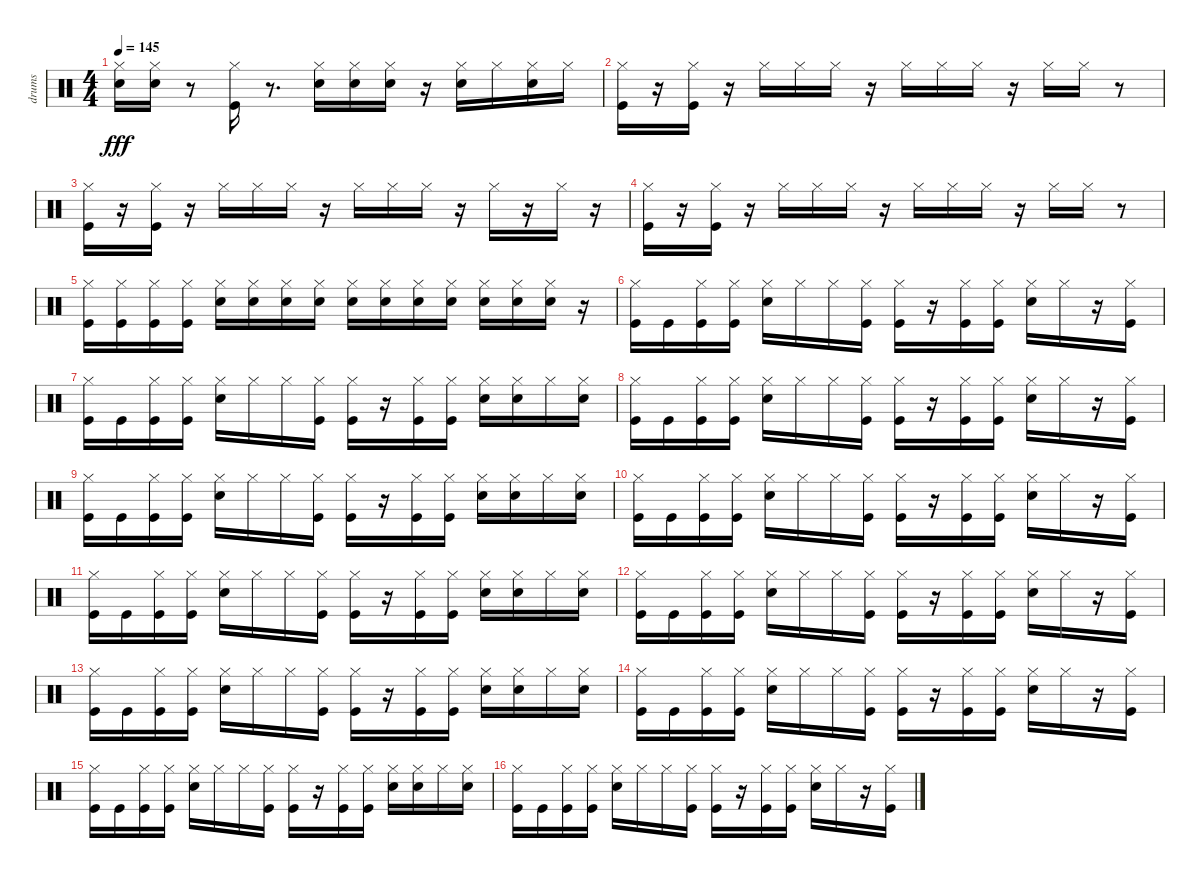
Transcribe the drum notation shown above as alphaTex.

\track ("drums" "drums") {instrument percussion}
\staff {score}
\articulation defaults
\ts (4 4)
\tempo 145
\clef neutral
\ks c
("Snare (hit) 2" "Hi-Hat (closed)").16{dy fff} ("Snare (hit) 2" "Hi-Hat (closed)").16 r.8 ("Kick (hit)" "Hi-Hat (closed)").16 r.8{d} ("Snare (hit) 2" "Hi-Hat (closed)").16 ("Snare (hit) 2" "Hi-Hat (closed)").16 ("Snare (hit) 2" "Hi-Hat (closed)").16 r.16 ("Snare (hit) 2" "Hi-Hat (closed)").16 "Hi-Hat (closed)".16 ("Snare (hit) 2" "Hi-Hat (closed)").16 "Hi-Hat (closed)".16 |
("Kick (hit)" "Hi-Hat (closed)").16 r.16 ("Kick (hit)" "Hi-Hat (closed)").16 r.16 "Hi-Hat (closed)".16 "Hi-Hat (closed)".16 "Hi-Hat (closed)".16 r.16 "Hi-Hat (closed)".16 "Hi-Hat (closed)".16 "Hi-Hat (closed)".16 r.16 "Hi-Hat (closed)".16 "Hi-Hat (closed)".16 r.8 |
("Kick (hit)" "Hi-Hat (closed)").16 r.16 ("Kick (hit)" "Hi-Hat (closed)").16 r.16 "Hi-Hat (closed)".16 "Hi-Hat (closed)".16 "Hi-Hat (closed)".16 r.16 "Hi-Hat (closed)".16 "Hi-Hat (closed)".16 "Hi-Hat (closed)".16 r.16 "Hi-Hat (closed)".16 r.16 "Hi-Hat (closed)".16 r.16 |
("Kick (hit)" "Hi-Hat (closed)").16 r.16 ("Kick (hit)" "Hi-Hat (closed)").16 r.16 "Hi-Hat (closed)".16 "Hi-Hat (closed)".16 "Hi-Hat (closed)".16 r.16 "Hi-Hat (closed)".16 "Hi-Hat (closed)".16 "Hi-Hat (closed)".16 r.16 "Hi-Hat (closed)".16 "Hi-Hat (closed)".16 r.8 |
("Kick (hit)" "Hi-Hat (closed)").16 ("Kick (hit)" "Hi-Hat (closed)").16 ("Kick (hit)" "Hi-Hat (closed)").16 ("Kick (hit)" "Hi-Hat (closed)").16 ("Snare (hit) 2" "Hi-Hat (closed)").16 ("Snare (hit) 2" "Hi-Hat (closed)").16 ("Snare (hit) 2" "Hi-Hat (closed)").16 ("Snare (hit) 2" "Hi-Hat (closed)").16 ("Snare (hit) 2" "Hi-Hat (closed)").16 ("Snare (hit) 2" "Hi-Hat (closed)").16 ("Snare (hit) 2" "Hi-Hat (closed)").16 ("Snare (hit) 2" "Hi-Hat (closed)").16 ("Snare (hit) 2" "Hi-Hat (closed)").16 ("Snare (hit) 2" "Hi-Hat (closed)").16 ("Snare (hit) 2" "Hi-Hat (closed)").16 r.16 |
("Kick (hit)" "Hi-Hat (closed)").16 "Kick (hit)".16 ("Kick (hit)" "Hi-Hat (closed)").16 ("Kick (hit)" "Hi-Hat (closed)").16 ("Snare (hit) 2" "Hi-Hat (closed)").16 "Hi-Hat (closed)".16 "Hi-Hat (closed)".16 ("Kick (hit)" "Hi-Hat (closed)").16 ("Kick (hit)" "Hi-Hat (closed)").16 r.16 ("Kick (hit)" "Hi-Hat (closed)").16 ("Kick (hit)" "Hi-Hat (closed)").16 ("Snare (hit) 2" "Hi-Hat (closed)").16 "Hi-Hat (closed)".16 r.16 ("Kick (hit)" "Hi-Hat (closed)").16 |
("Kick (hit)" "Hi-Hat (closed)").16 "Kick (hit)".16 ("Kick (hit)" "Hi-Hat (closed)").16 ("Kick (hit)" "Hi-Hat (closed)").16 ("Snare (hit) 2" "Hi-Hat (closed)").16 "Hi-Hat (closed)".16 "Hi-Hat (closed)".16 ("Kick (hit)" "Hi-Hat (closed)").16 ("Kick (hit)" "Hi-Hat (closed)").16 r.16 ("Kick (hit)" "Hi-Hat (closed)").16 ("Kick (hit)" "Hi-Hat (closed)").16 ("Snare (hit) 2" "Hi-Hat (closed)").16 ("Snare (hit) 2" "Hi-Hat (closed)").16 "Hi-Hat (closed)".16 ("Snare (hit) 2" "Hi-Hat (closed)").16 |
("Kick (hit)" "Hi-Hat (closed)").16 "Kick (hit)".16 ("Kick (hit)" "Hi-Hat (closed)").16 ("Kick (hit)" "Hi-Hat (closed)").16 ("Snare (hit) 2" "Hi-Hat (closed)").16 "Hi-Hat (closed)".16 "Hi-Hat (closed)".16 ("Kick (hit)" "Hi-Hat (closed)").16 ("Kick (hit)" "Hi-Hat (closed)").16 r.16 ("Kick (hit)" "Hi-Hat (closed)").16 ("Kick (hit)" "Hi-Hat (closed)").16 ("Snare (hit) 2" "Hi-Hat (closed)").16 "Hi-Hat (closed)".16 r.16 ("Kick (hit)" "Hi-Hat (closed)").16 |
("Kick (hit)" "Hi-Hat (closed)").16 "Kick (hit)".16 ("Kick (hit)" "Hi-Hat (closed)").16 ("Kick (hit)" "Hi-Hat (closed)").16 ("Snare (hit) 2" "Hi-Hat (closed)").16 "Hi-Hat (closed)".16 "Hi-Hat (closed)".16 ("Kick (hit)" "Hi-Hat (closed)").16 ("Kick (hit)" "Hi-Hat (closed)").16 r.16 ("Kick (hit)" "Hi-Hat (closed)").16 ("Kick (hit)" "Hi-Hat (closed)").16 ("Snare (hit) 2" "Hi-Hat (closed)").16 ("Snare (hit) 2" "Hi-Hat (closed)").16 "Hi-Hat (closed)".16 ("Snare (hit) 2" "Hi-Hat (closed)").16 |
("Kick (hit)" "Hi-Hat (closed)").16 "Kick (hit)".16 ("Kick (hit)" "Hi-Hat (closed)").16 ("Kick (hit)" "Hi-Hat (closed)").16 ("Snare (hit) 2" "Hi-Hat (closed)").16 "Hi-Hat (closed)".16 "Hi-Hat (closed)".16 ("Kick (hit)" "Hi-Hat (closed)").16 ("Kick (hit)" "Hi-Hat (closed)").16 r.16 ("Kick (hit)" "Hi-Hat (closed)").16 ("Kick (hit)" "Hi-Hat (closed)").16 ("Snare (hit) 2" "Hi-Hat (closed)").16 "Hi-Hat (closed)".16 r.16 ("Kick (hit)" "Hi-Hat (closed)").16 |
("Kick (hit)" "Hi-Hat (closed)").16 "Kick (hit)".16 ("Kick (hit)" "Hi-Hat (closed)").16 ("Kick (hit)" "Hi-Hat (closed)").16 ("Snare (hit) 2" "Hi-Hat (closed)").16 "Hi-Hat (closed)".16 "Hi-Hat (closed)".16 ("Kick (hit)" "Hi-Hat (closed)").16 ("Kick (hit)" "Hi-Hat (closed)").16 r.16 ("Kick (hit)" "Hi-Hat (closed)").16 ("Kick (hit)" "Hi-Hat (closed)").16 ("Snare (hit) 2" "Hi-Hat (closed)").16 ("Snare (hit) 2" "Hi-Hat (closed)").16 "Hi-Hat (closed)".16 ("Snare (hit) 2" "Hi-Hat (closed)").16 |
("Kick (hit)" "Hi-Hat (closed)").16 "Kick (hit)".16 ("Kick (hit)" "Hi-Hat (closed)").16 ("Kick (hit)" "Hi-Hat (closed)").16 ("Snare (hit) 2" "Hi-Hat (closed)").16 "Hi-Hat (closed)".16 "Hi-Hat (closed)".16 ("Kick (hit)" "Hi-Hat (closed)").16 ("Kick (hit)" "Hi-Hat (closed)").16 r.16 ("Kick (hit)" "Hi-Hat (closed)").16 ("Kick (hit)" "Hi-Hat (closed)").16 ("Snare (hit) 2" "Hi-Hat (closed)").16 "Hi-Hat (closed)".16 r.16 ("Kick (hit)" "Hi-Hat (closed)").16 |
("Kick (hit)" "Hi-Hat (closed)").16 "Kick (hit)".16 ("Kick (hit)" "Hi-Hat (closed)").16 ("Kick (hit)" "Hi-Hat (closed)").16 ("Snare (hit) 2" "Hi-Hat (closed)").16 "Hi-Hat (closed)".16 "Hi-Hat (closed)".16 ("Kick (hit)" "Hi-Hat (closed)").16 ("Kick (hit)" "Hi-Hat (closed)").16 r.16 ("Kick (hit)" "Hi-Hat (closed)").16 ("Kick (hit)" "Hi-Hat (closed)").16 ("Snare (hit) 2" "Hi-Hat (closed)").16 ("Snare (hit) 2" "Hi-Hat (closed)").16 "Hi-Hat (closed)".16 ("Snare (hit) 2" "Hi-Hat (closed)").16 |
("Kick (hit)" "Hi-Hat (closed)").16 "Kick (hit)".16 ("Kick (hit)" "Hi-Hat (closed)").16 ("Kick (hit)" "Hi-Hat (closed)").16 ("Snare (hit) 2" "Hi-Hat (closed)").16 "Hi-Hat (closed)".16 "Hi-Hat (closed)".16 ("Kick (hit)" "Hi-Hat (closed)").16 ("Kick (hit)" "Hi-Hat (closed)").16 r.16 ("Kick (hit)" "Hi-Hat (closed)").16 ("Kick (hit)" "Hi-Hat (closed)").16 ("Snare (hit) 2" "Hi-Hat (closed)").16 "Hi-Hat (closed)".16 r.16 ("Kick (hit)" "Hi-Hat (closed)").16 |
("Kick (hit)" "Hi-Hat (closed)").16 "Kick (hit)".16 ("Kick (hit)" "Hi-Hat (closed)").16 ("Kick (hit)" "Hi-Hat (closed)").16 ("Snare (hit) 2" "Hi-Hat (closed)").16 "Hi-Hat (closed)".16 "Hi-Hat (closed)".16 ("Kick (hit)" "Hi-Hat (closed)").16 ("Kick (hit)" "Hi-Hat (closed)").16 r.16 ("Kick (hit)" "Hi-Hat (closed)").16 ("Kick (hit)" "Hi-Hat (closed)").16 ("Snare (hit) 2" "Hi-Hat (closed)").16 ("Snare (hit) 2" "Hi-Hat (closed)").16 "Hi-Hat (closed)".16 ("Snare (hit) 2" "Hi-Hat (closed)").16 |
("Kick (hit)" "Hi-Hat (closed)").16 "Kick (hit)".16 ("Kick (hit)" "Hi-Hat (closed)").16 ("Kick (hit)" "Hi-Hat (closed)").16 ("Snare (hit) 2" "Hi-Hat (closed)").16 "Hi-Hat (closed)".16 "Hi-Hat (closed)".16 ("Kick (hit)" "Hi-Hat (closed)").16 ("Kick (hit)" "Hi-Hat (closed)").16 r.16 ("Kick (hit)" "Hi-Hat (closed)").16 ("Kick (hit)" "Hi-Hat (closed)").16 ("Snare (hit) 2" "Hi-Hat (closed)").16 "Hi-Hat (closed)".16 r.16 ("Kick (hit)" "Hi-Hat (closed)").16
